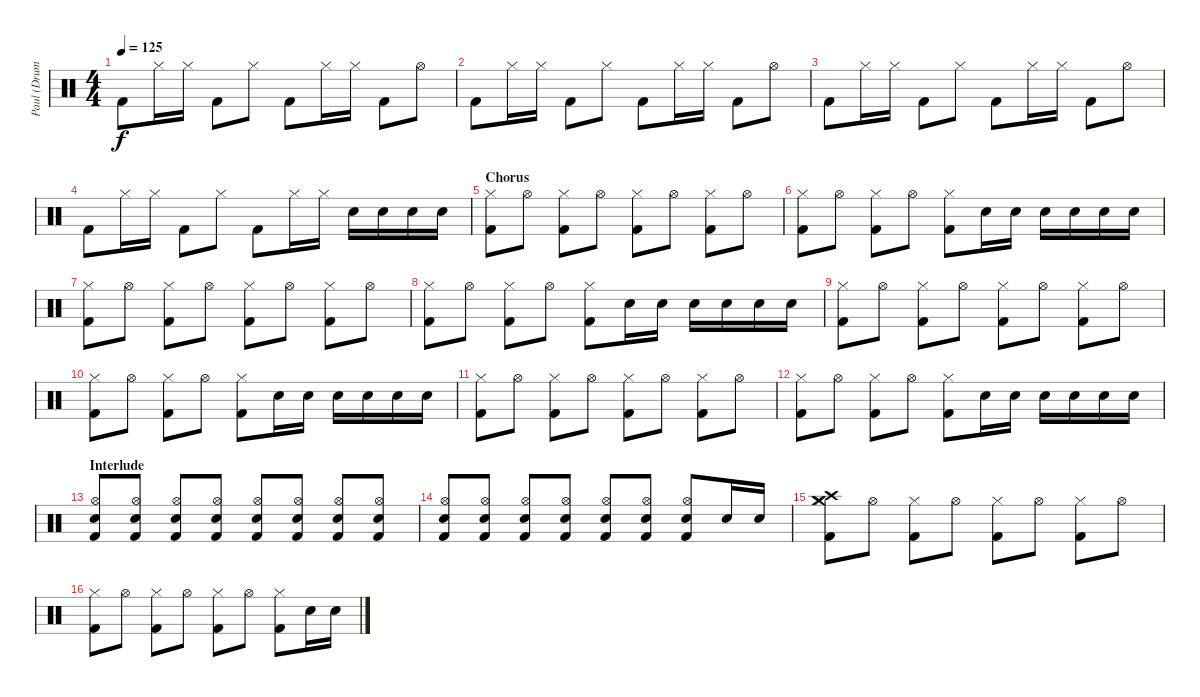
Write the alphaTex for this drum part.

\track ("Paul (Drums)" "Paul (Drum") {instrument percussion}
\staff {score}
\articulation defaults
\ts (4 4)
\tempo 125
\clef neutral
\ks c "Kick (hit) 2".8{dy f} "Hi-Hat (closed)".16 "Hi-Hat (closed)".16 "Kick (hit) 2".8 "Hi-Hat (closed)".8 "Kick (hit) 2".8 "Hi-Hat (closed)".16 "Hi-Hat (closed)".16 "Kick (hit) 2".8 "Hi-Hat (open)".8
|
"Kick (hit) 2".8 "Hi-Hat (closed)".16 "Hi-Hat (closed)".16 "Kick (hit) 2".8 "Hi-Hat (closed)".8 "Kick (hit) 2".8 "Hi-Hat (closed)".16 "Hi-Hat (closed)".16 "Kick (hit) 2".8 "Hi-Hat (open)".8 |
"Kick (hit) 2".8 "Hi-Hat (closed)".16 "Hi-Hat (closed)".16 "Kick (hit) 2".8 "Hi-Hat (closed)".8 "Kick (hit) 2".8 "Hi-Hat (closed)".16 "Hi-Hat (closed)".16 "Kick (hit) 2".8 "Hi-Hat (open)".8 |
"Kick (hit) 2".8 "Hi-Hat (closed)".16 "Hi-Hat (closed)".16 "Kick (hit) 2".8 "Hi-Hat (closed)".8 "Kick (hit) 2".8 "Hi-Hat (closed)".16 "Hi-Hat (closed)".16 "Snare (hit) 2".16 "Snare (hit) 2".16 "Snare (hit) 2".16 "Snare (hit) 2".16 |
\section ("" "Chorus")
("Hi-Hat (closed)" "Kick (hit) 2").8 "Hi-Hat (open)".8 ("Hi-Hat (closed)" "Kick (hit) 2").8 "Hi-Hat (open)".8 ("Hi-Hat (closed)" "Kick (hit) 2").8 "Hi-Hat (open)".8 ("Hi-Hat (closed)" "Kick (hit) 2").8 "Hi-Hat (open)".8 |
("Hi-Hat (closed)" "Kick (hit) 2").8 "Hi-Hat (open)".8 ("Hi-Hat (closed)" "Kick (hit) 2").8 "Hi-Hat (open)".8 ("Hi-Hat (closed)" "Kick (hit) 2").8 "Snare (hit) 2".16 "Snare (hit) 2".16 "Snare (hit) 2".16 "Snare (hit) 2".16 "Snare (hit) 2".16 "Snare (hit) 2".16 |
("Hi-Hat (closed)" "Kick (hit) 2").8 "Hi-Hat (open)".8 ("Hi-Hat (closed)" "Kick (hit) 2").8 "Hi-Hat (open)".8 ("Hi-Hat (closed)" "Kick (hit) 2").8 "Hi-Hat (open)".8 ("Hi-Hat (closed)" "Kick (hit) 2").8 "Hi-Hat (open)".8 |
("Hi-Hat (closed)" "Kick (hit) 2").8 "Hi-Hat (open)".8 ("Hi-Hat (closed)" "Kick (hit) 2").8 "Hi-Hat (open)".8 ("Hi-Hat (closed)" "Kick (hit) 2").8 "Snare (hit) 2".16 "Snare (hit) 2".16 "Snare (hit) 2".16 "Snare (hit) 2".16 "Snare (hit) 2".16 "Snare (hit) 2".16 |
("Hi-Hat (closed)" "Kick (hit) 2").8 "Hi-Hat (open)".8 ("Hi-Hat (closed)" "Kick (hit) 2").8 "Hi-Hat (open)".8 ("Hi-Hat (closed)" "Kick (hit) 2").8 "Hi-Hat (open)".8 ("Hi-Hat (closed)" "Kick (hit) 2").8 "Hi-Hat (open)".8 |
("Hi-Hat (closed)" "Kick (hit) 2").8 "Hi-Hat (open)".8 ("Hi-Hat (closed)" "Kick (hit) 2").8 "Hi-Hat (open)".8 ("Hi-Hat (closed)" "Kick (hit) 2").8 "Snare (hit) 2".16 "Snare (hit) 2".16 "Snare (hit) 2".16 "Snare (hit) 2".16 "Snare (hit) 2".16 "Snare (hit) 2".16 |
("Hi-Hat (closed)" "Kick (hit) 2").8 "Hi-Hat (open)".8 ("Hi-Hat (closed)" "Kick (hit) 2").8 "Hi-Hat (open)".8 ("Hi-Hat (closed)" "Kick (hit) 2").8 "Hi-Hat (open)".8 ("Hi-Hat (closed)" "Kick (hit) 2").8 "Hi-Hat (open)".8 |
("Hi-Hat (closed)" "Kick (hit) 2").8 "Hi-Hat (open)".8 ("Hi-Hat (closed)" "Kick (hit) 2").8 "Hi-Hat (open)".8 ("Hi-Hat (closed)" "Kick (hit) 2").8 "Snare (hit) 2".16 "Snare (hit) 2".16 "Snare (hit) 2".16 "Snare (hit) 2".16 "Snare (hit) 2".16 "Snare (hit) 2".16 |
\section ("" "Interlude")
("Hi-Hat (open)" "Kick (hit) 2" "Snare (hit) 2").8 ("Hi-Hat (open)" "Kick (hit) 2" "Snare (hit) 2").8 ("Hi-Hat (open)" "Kick (hit) 2" "Snare (hit) 2").8 ("Hi-Hat (open)" "Kick (hit) 2" "Snare (hit) 2").8 ("Hi-Hat (open)" "Kick (hit) 2" "Snare (hit) 2").8 ("Hi-Hat (open)" "Kick (hit) 2" "Snare (hit) 2").8 ("Hi-Hat (open)" "Kick (hit) 2" "Snare (hit) 2").8 ("Hi-Hat (open)" "Kick (hit) 2" "Snare (hit) 2").8 |
("Hi-Hat (open)" "Kick (hit) 2" "Snare (hit) 2").8 ("Hi-Hat (open)" "Kick (hit) 2" "Snare (hit) 2").8 ("Hi-Hat (open)" "Kick (hit) 2" "Snare (hit) 2").8 ("Hi-Hat (open)" "Kick (hit) 2" "Snare (hit) 2").8 ("Hi-Hat (open)" "Kick (hit) 2" "Snare (hit) 2").8 ("Hi-Hat (open)" "Kick (hit) 2" "Snare (hit) 2").8 ("Hi-Hat (open)" "Kick (hit) 2" "Snare (hit) 2").8 "Electric Snare (hit)".16 "Electric Snare (hit)".16 |
("Crash high (hit)" "Crash medium (hit)" "Hi-Hat (closed)" "Kick (hit) 2").8 "Hi-Hat (open)".8 ("Hi-Hat (closed)" "Kick (hit) 2").8 "Hi-Hat (open)".8 ("Hi-Hat (closed)" "Kick (hit) 2").8 "Hi-Hat (open)".8 ("Hi-Hat (closed)" "Kick (hit) 2").8 "Hi-Hat (open)".8 |
("Hi-Hat (closed)" "Kick (hit) 2").8 "Hi-Hat (open)".8 ("Hi-Hat (closed)" "Kick (hit) 2").8 "Hi-Hat (open)".8 ("Hi-Hat (closed)" "Kick (hit) 2").8 "Hi-Hat (open)".8 ("Hi-Hat (closed)" "Kick (hit) 2").8 "Electric Snare (hit)".16 "Electric Snare (hit)".16
